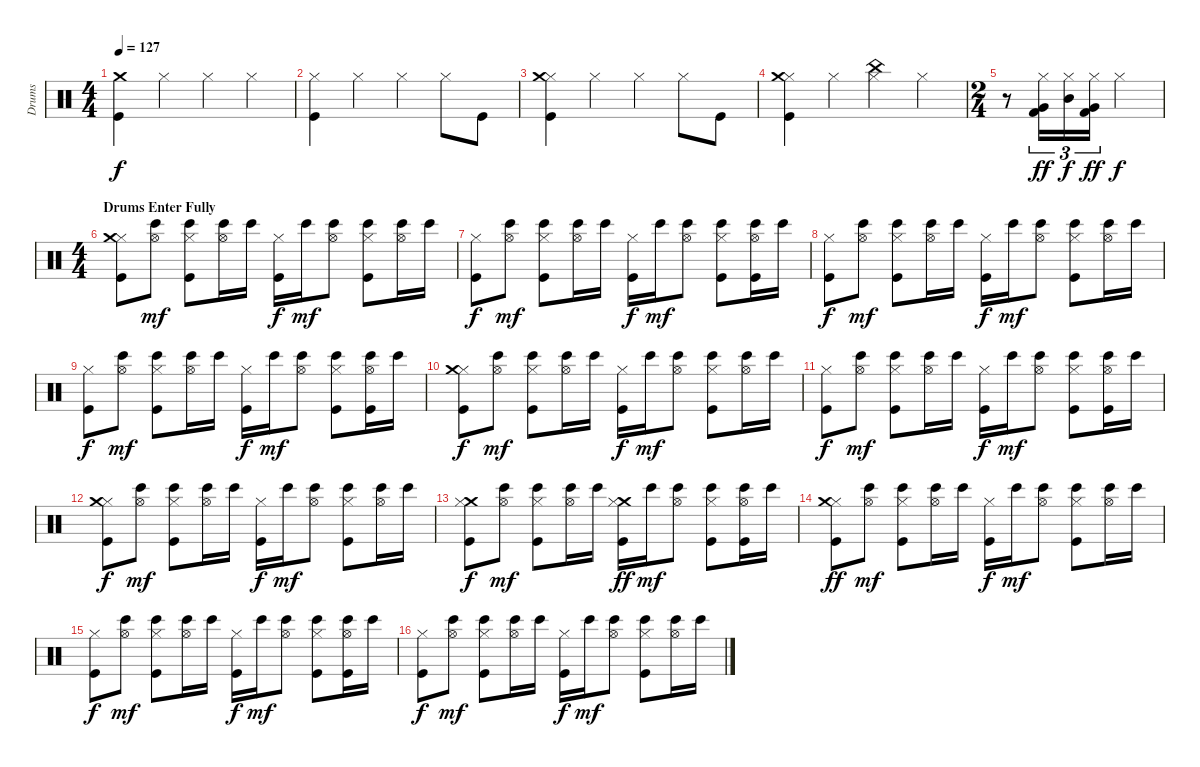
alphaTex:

\track ("Drums" "Drums") {instrument percussion}
\staff {score}
\articulation defaults
\ts (4 4)
\tempo 127
\clef neutral
\ks c
("Crash medium (hit)" "Kick (hit)").4{dy f} "Hi-Hat (closed)".4 "Hi-Hat (closed)".4 "Hi-Hat (closed)".4 |
("Kick (hit)" "Hi-Hat (closed)").4 "Hi-Hat (closed)".4 "Hi-Hat (closed)".4 "Hi-Hat (closed)".8 "Kick (hit)".8 |
("Hi-Hat (closed)" "Crash medium (hit)" "Kick (hit)").4 "Hi-Hat (closed)".4 "Hi-Hat (closed)".4 "Hi-Hat (closed)".8 "Kick (hit)".8 |
("Hi-Hat (closed)" "Crash medium (hit)" "Kick (hit)").4 "Hi-Hat (closed)".4 ("Hi-Hat (closed)" "China (hit)").4 "Hi-Hat (closed)".4 |
\ts (2 4)
r.8 ("Kick (hit) 2" "Hi-Hat (closed)" "Very Low Tom (hit)").16{tu (3 2) dy ff balance 2} ("Hi-Hat (closed)" "Mid Tom (hit)").16{tu (3 2) dy f} ("Kick (hit) 2" "Hi-Hat (closed)" "Very Low Tom (hit)").16{tu (3 2) dy ff} "Hi-Hat (closed)".4{dy f balance 14} |
\ts (4 4)
\section ("" "Drums Enter Fully")
("Kick (hit)" "Hi-Hat (closed)" "Crash medium (hit)").8{volume 16 balance 8} ("Bongo High (hit)" "Hi-Hat (open)").8{dy mf} ("Bongo High (hit)" "Kick (hit)" "Hi-Hat (closed)").8 ("Bongo High (hit)" "Hi-Hat (open)").16 "Bongo High (hit)".16 ("Kick (hit)" "Hi-Hat (closed)").16{dy f} "Bongo High (hit)".16{dy mf} ("Bongo High (hit)" "Hi-Hat (open)").8 ("Bongo High (hit)" "Kick (hit)" "Hi-Hat (closed)").8 ("Bongo High (hit)" "Hi-Hat (open)").16 "Bongo High (hit)".16 |
("Hi-Hat (closed)" "Kick (hit)").8{dy f} ("Bongo High (hit)" "Hi-Hat (open)").8{dy mf} ("Bongo High (hit)" "Kick (hit)" "Hi-Hat (closed)").8 ("Bongo High (hit)" "Hi-Hat (open)").16 "Bongo High (hit)".16 ("Kick (hit)" "Hi-Hat (closed)").16{dy f} "Bongo High (hit)".16{dy mf} ("Bongo High (hit)" "Hi-Hat (open)").8 ("Bongo High (hit)" "Kick (hit)" "Hi-Hat (closed)").8 ("Kick (hit)" "Bongo High (hit)" "Hi-Hat (open)").16 "Bongo High (hit)".16 |
("Kick (hit)" "Hi-Hat (closed)").8{dy f} ("Bongo High (hit)" "Hi-Hat (open)").8{dy mf} ("Bongo High (hit)" "Kick (hit)" "Hi-Hat (closed)").8 ("Bongo High (hit)" "Hi-Hat (open)").16 "Bongo High (hit)".16 ("Kick (hit)" "Hi-Hat (closed)").16{dy f} "Bongo High (hit)".16{dy mf} ("Bongo High (hit)" "Hi-Hat (open)").8 ("Bongo High (hit)" "Kick (hit)" "Hi-Hat (closed)").8 ("Bongo High (hit)" "Hi-Hat (open)").16 "Bongo High (hit)".16 |
("Hi-Hat (closed)" "Kick (hit)").8{dy f} ("Bongo High (hit)" "Hi-Hat (open)").8{dy mf} ("Bongo High (hit)" "Kick (hit)" "Hi-Hat (closed)").8 ("Bongo High (hit)" "Hi-Hat (open)").16 "Bongo High (hit)".16 ("Kick (hit)" "Hi-Hat (closed)").16{dy f} "Bongo High (hit)".16{dy mf} ("Bongo High (hit)" "Hi-Hat (open)").8 ("Bongo High (hit)" "Kick (hit)" "Hi-Hat (closed)").8 ("Kick (hit)" "Bongo High (hit)" "Hi-Hat (open)").16 "Bongo High (hit)".16 |
("Kick (hit)" "Hi-Hat (closed)" "Crash medium (hit)").8{dy f} ("Bongo High (hit)" "Hi-Hat (open)").8{dy mf} ("Bongo High (hit)" "Kick (hit)" "Hi-Hat (closed)").8 ("Bongo High (hit)" "Hi-Hat (open)").16 "Bongo High (hit)".16 ("Kick (hit)" "Hi-Hat (closed)").16{dy f} "Bongo High (hit)".16{dy mf} ("Bongo High (hit)" "Hi-Hat (open)").8 ("Bongo High (hit)" "Kick (hit)" "Hi-Hat (closed)").8 ("Bongo High (hit)" "Hi-Hat (open)").16 "Bongo High (hit)".16 |
("Hi-Hat (closed)" "Kick (hit)").8{dy f} ("Bongo High (hit)" "Hi-Hat (open)").8{dy mf} ("Bongo High (hit)" "Kick (hit)" "Hi-Hat (closed)").8 ("Bongo High (hit)" "Hi-Hat (open)").16 "Bongo High (hit)".16 ("Kick (hit)" "Hi-Hat (closed)").16{dy f} "Bongo High (hit)".16{dy mf} ("Bongo High (hit)" "Hi-Hat (open)").8 ("Bongo High (hit)" "Kick (hit)" "Hi-Hat (closed)").8 ("Kick (hit)" "Bongo High (hit)" "Hi-Hat (open)").16 "Bongo High (hit)".16 |
("Hi-Hat (closed)" "Crash medium (hit)" "Kick (hit)").8{dy f} ("Bongo High (hit)" "Hi-Hat (open)").8{dy mf} ("Bongo High (hit)" "Kick (hit)" "Hi-Hat (closed)").8 ("Bongo High (hit)" "Hi-Hat (open)").16 "Bongo High (hit)".16 ("Kick (hit)" "Hi-Hat (closed)").16{dy f} "Bongo High (hit)".16{dy mf} ("Bongo High (hit)" "Hi-Hat (open)").8 ("Bongo High (hit)" "Kick (hit)" "Hi-Hat (closed)").8 ("Bongo High (hit)" "Hi-Hat (open)").16 "Bongo High (hit)".16 |
("Kick (hit)" "Crash medium (hit)" "Hi-Hat (closed)").8{dy f} ("Bongo High (hit)" "Hi-Hat (open)").8{dy mf} ("Bongo High (hit)" "Kick (hit)" "Hi-Hat (closed)").8 ("Bongo High (hit)" "Hi-Hat (open)").16 "Bongo High (hit)".16 ("Crash medium (hit)" "Kick (hit)" "Hi-Hat (closed)").16{dy ff} "Bongo High (hit)".16{dy mf} ("Bongo High (hit)" "Hi-Hat (open)").8 ("Bongo High (hit)" "Kick (hit)" "Hi-Hat (closed)").8 ("Kick (hit)" "Bongo High (hit)" "Hi-Hat (open)").16 "Bongo High (hit)".16 |
("Kick (hit)" "Hi-Hat (closed)" "Crash medium (hit)").8{dy ff} ("Bongo High (hit)" "Hi-Hat (open)").8{dy mf} ("Bongo High (hit)" "Kick (hit)" "Hi-Hat (closed)").8 ("Bongo High (hit)" "Hi-Hat (open)").16 "Bongo High (hit)".16 ("Kick (hit)" "Hi-Hat (closed)").16{dy f} "Bongo High (hit)".16{dy mf} ("Bongo High (hit)" "Hi-Hat (open)").8 ("Bongo High (hit)" "Kick (hit)" "Hi-Hat (closed)").8 ("Bongo High (hit)" "Hi-Hat (open)").16 "Bongo High (hit)".16 |
("Hi-Hat (closed)" "Kick (hit)").8{dy f} ("Bongo High (hit)" "Hi-Hat (open)").8{dy mf} ("Bongo High (hit)" "Kick (hit)" "Hi-Hat (closed)").8 ("Bongo High (hit)" "Hi-Hat (open)").16 "Bongo High (hit)".16 ("Kick (hit)" "Hi-Hat (closed)").16{dy f} "Bongo High (hit)".16{dy mf} ("Bongo High (hit)" "Hi-Hat (open)").8 ("Bongo High (hit)" "Kick (hit)" "Hi-Hat (closed)").8 ("Kick (hit)" "Bongo High (hit)" "Hi-Hat (open)").16 "Bongo High (hit)".16 |
("Kick (hit)" "Hi-Hat (closed)").8{dy f} ("Bongo High (hit)" "Hi-Hat (open)").8{dy mf} ("Bongo High (hit)" "Kick (hit)" "Hi-Hat (closed)").8 ("Bongo High (hit)" "Hi-Hat (open)").16 "Bongo High (hit)".16 ("Kick (hit)" "Hi-Hat (closed)").16{dy f} "Bongo High (hit)".16{dy mf} ("Bongo High (hit)" "Hi-Hat (open)").8 ("Bongo High (hit)" "Kick (hit)" "Hi-Hat (closed)").8 ("Bongo High (hit)" "Hi-Hat (open)").16 "Bongo High (hit)".16
